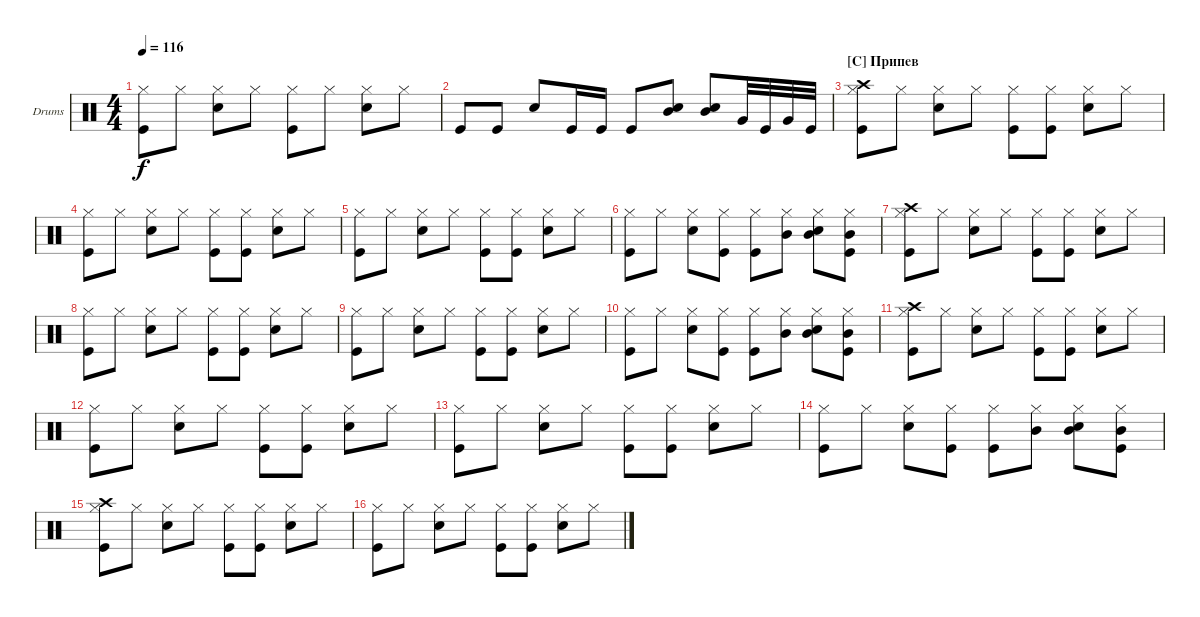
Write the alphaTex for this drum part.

\defaultSystemsLayout 4
\bracketExtendMode groupsimilarinstruments
\firstSystemTrackNameOrientation horizontal
\otherSystemsTrackNameOrientation horizontal
\track ("Drumkit" "Drums") {instrument percussion}
\staff {score}
\articulation defaults
\ts (4 4)
\tempo 116
\clef neutral
\ks c
("Hi-Hat (closed)" "Kick (hit)").8{dy f} "Hi-Hat (closed)".8 ("Hi-Hat (closed)" "Snare (hit) 2").8 "Hi-Hat (closed)".8 ("Hi-Hat (closed)" "Kick (hit)").8 "Hi-Hat (closed)".8 ("Hi-Hat (closed)" "Snare (hit) 2").8 "Hi-Hat (closed)".8 |
"Kick (hit)".8 "Kick (hit)".8 "Snare (hit) 2".8 "Kick (hit)".16 "Kick (hit)".16 "Kick (hit)".8 ("Snare (hit) 2" "Mid Tom (hit)").8 ("Snare (hit) 2" "Mid Tom (hit)").8 "Very Low Tom (hit)".32 "Kick (hit)".32 "Very Low Tom (hit)".32 "Kick (hit)".32 |
\section ("C" "Припев")
("Hi-Hat (closed)" "Crash high (hit)" "Kick (hit)").8 "Hi-Hat (closed)".8 ("Hi-Hat (closed)" "Snare (hit) 2").8 "Hi-Hat (closed)".8 ("Hi-Hat (closed)" "Kick (hit)").8 ("Hi-Hat (closed)" "Kick (hit)").8 ("Hi-Hat (closed)" "Snare (hit) 2").8 "Hi-Hat (closed)".8 |
("Hi-Hat (closed)" "Kick (hit)").8 "Hi-Hat (closed)".8 ("Hi-Hat (closed)" "Snare (hit) 2").8 "Hi-Hat (closed)".8 ("Hi-Hat (closed)" "Kick (hit)").8 ("Hi-Hat (closed)" "Kick (hit)").8 ("Hi-Hat (closed)" "Snare (hit) 2").8 "Hi-Hat (closed)".8 |
("Hi-Hat (closed)" "Kick (hit)").8 "Hi-Hat (closed)".8 ("Hi-Hat (closed)" "Snare (hit) 2").8 "Hi-Hat (closed)".8 ("Hi-Hat (closed)" "Kick (hit)").8 ("Hi-Hat (closed)" "Kick (hit)").8 ("Hi-Hat (closed)" "Snare (hit) 2").8 "Hi-Hat (closed)".8 |
("Hi-Hat (closed)" "Kick (hit)").8 "Hi-Hat (closed)".8 ("Hi-Hat (closed)" "Snare (hit) 2").8 ("Hi-Hat (closed)" "Kick (hit)").8 ("Hi-Hat (closed)" "Kick (hit)").8 ("Hi-Hat (closed)" "Mid Tom (hit)").8 ("Hi-Hat (closed)" "Snare (hit) 2" "Mid Tom (hit)").8 ("Hi-Hat (closed)" "Kick (hit)" "Mid Tom (hit)").8 |
("Hi-Hat (closed)" "Crash high (hit)" "Kick (hit)").8 "Hi-Hat (closed)".8 ("Hi-Hat (closed)" "Snare (hit) 2").8 "Hi-Hat (closed)".8 ("Hi-Hat (closed)" "Kick (hit)").8 ("Hi-Hat (closed)" "Kick (hit)").8 ("Hi-Hat (closed)" "Snare (hit) 2").8 "Hi-Hat (closed)".8 |
("Hi-Hat (closed)" "Kick (hit)").8 "Hi-Hat (closed)".8 ("Hi-Hat (closed)" "Snare (hit) 2").8 "Hi-Hat (closed)".8 ("Hi-Hat (closed)" "Kick (hit)").8 ("Hi-Hat (closed)" "Kick (hit)").8 ("Hi-Hat (closed)" "Snare (hit) 2").8 "Hi-Hat (closed)".8 |
("Hi-Hat (closed)" "Kick (hit)").8 "Hi-Hat (closed)".8 ("Hi-Hat (closed)" "Snare (hit) 2").8 "Hi-Hat (closed)".8 ("Hi-Hat (closed)" "Kick (hit)").8 ("Hi-Hat (closed)" "Kick (hit)").8 ("Hi-Hat (closed)" "Snare (hit) 2").8 "Hi-Hat (closed)".8 |
("Hi-Hat (closed)" "Kick (hit)").8 "Hi-Hat (closed)".8 ("Hi-Hat (closed)" "Snare (hit) 2").8 ("Hi-Hat (closed)" "Kick (hit)").8 ("Hi-Hat (closed)" "Kick (hit)").8 ("Hi-Hat (closed)" "Mid Tom (hit)").8 ("Hi-Hat (closed)" "Snare (hit) 2" "Mid Tom (hit)").8 ("Hi-Hat (closed)" "Kick (hit)" "Mid Tom (hit)").8 |
("Hi-Hat (closed)" "Crash high (hit)" "Kick (hit)").8 "Hi-Hat (closed)".8 ("Hi-Hat (closed)" "Snare (hit) 2").8 "Hi-Hat (closed)".8 ("Hi-Hat (closed)" "Kick (hit)").8 ("Hi-Hat (closed)" "Kick (hit)").8 ("Hi-Hat (closed)" "Snare (hit) 2").8 "Hi-Hat (closed)".8 |
("Hi-Hat (closed)" "Kick (hit)").8 "Hi-Hat (closed)".8 ("Hi-Hat (closed)" "Snare (hit) 2").8 "Hi-Hat (closed)".8 ("Hi-Hat (closed)" "Kick (hit)").8 ("Hi-Hat (closed)" "Kick (hit)").8 ("Hi-Hat (closed)" "Snare (hit) 2").8 "Hi-Hat (closed)".8 |
("Hi-Hat (closed)" "Kick (hit)").8 "Hi-Hat (closed)".8 ("Hi-Hat (closed)" "Snare (hit) 2").8 "Hi-Hat (closed)".8 ("Hi-Hat (closed)" "Kick (hit)").8 ("Hi-Hat (closed)" "Kick (hit)").8 ("Hi-Hat (closed)" "Snare (hit) 2").8 "Hi-Hat (closed)".8 |
("Hi-Hat (closed)" "Kick (hit)").8 "Hi-Hat (closed)".8 ("Hi-Hat (closed)" "Snare (hit) 2").8 ("Hi-Hat (closed)" "Kick (hit)").8 ("Hi-Hat (closed)" "Kick (hit)").8 ("Hi-Hat (closed)" "Mid Tom (hit)").8 ("Hi-Hat (closed)" "Snare (hit) 2" "Mid Tom (hit)").8 ("Hi-Hat (closed)" "Kick (hit)" "Mid Tom (hit)").8 |
("Hi-Hat (closed)" "Crash high (hit)" "Kick (hit)").8 "Hi-Hat (closed)".8 ("Hi-Hat (closed)" "Snare (hit) 2").8 "Hi-Hat (closed)".8 ("Hi-Hat (closed)" "Kick (hit)").8 ("Hi-Hat (closed)" "Kick (hit)").8 ("Hi-Hat (closed)" "Snare (hit) 2").8 "Hi-Hat (closed)".8 |
("Hi-Hat (closed)" "Kick (hit)").8 "Hi-Hat (closed)".8 ("Hi-Hat (closed)" "Snare (hit) 2").8 "Hi-Hat (closed)".8 ("Hi-Hat (closed)" "Kick (hit)").8 ("Hi-Hat (closed)" "Kick (hit)").8 ("Hi-Hat (closed)" "Snare (hit) 2").8 "Hi-Hat (closed)".8
